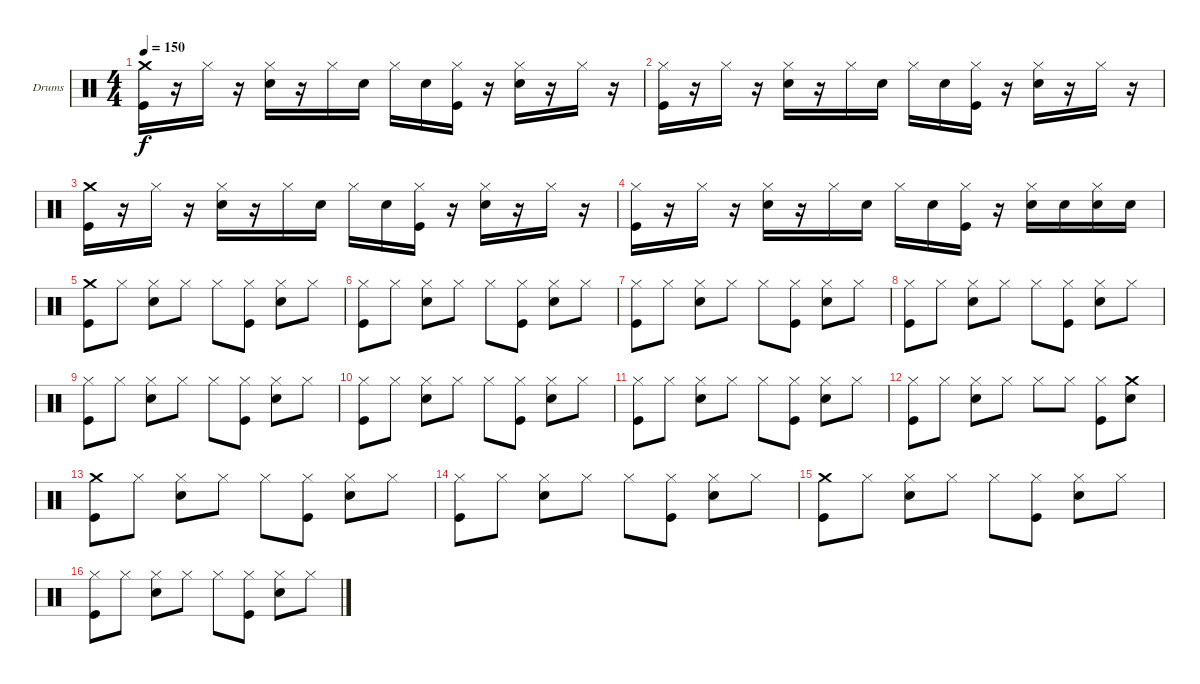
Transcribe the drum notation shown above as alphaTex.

\defaultSystemsLayout 4
\bracketExtendMode groupsimilarinstruments
\firstSystemTrackNameOrientation horizontal
\otherSystemsTrackNameOrientation horizontal
\track ("Drumkit" "Drums") {instrument percussion}
\staff {score}
\articulation defaults
\ts (4 4)
\tempo 150
\clef neutral
\ks c
("Kick (hit)" "Crash medium (hit)").16{dy f} r.16 "Hi-Hat (closed)".16 r.16 ("Snare (hit) 2" "Hi-Hat (closed)").16 r.16 "Hi-Hat (closed)".16 "Snare (hit) 2".16 "Hi-Hat (closed)".16 "Snare (hit) 2".16 ("Kick (hit)" "Hi-Hat (closed)").16 r.16 ("Snare (hit) 2" "Hi-Hat (closed)").16 r.16 "Hi-Hat (closed)".16 r.16 |
("Kick (hit)" "Hi-Hat (closed)").16 r.16 "Hi-Hat (closed)".16 r.16 ("Snare (hit) 2" "Hi-Hat (closed)").16 r.16 "Hi-Hat (closed)".16 "Snare (hit) 2".16 "Hi-Hat (closed)".16 "Snare (hit) 2".16 ("Kick (hit)" "Hi-Hat (closed)").16 r.16 ("Snare (hit) 2" "Hi-Hat (closed)").16 r.16 "Hi-Hat (closed)".16 r.16 |
("Kick (hit)" "Crash medium (hit)").16 r.16 "Hi-Hat (closed)".16 r.16 ("Snare (hit) 2" "Hi-Hat (closed)").16 r.16 "Hi-Hat (closed)".16 "Snare (hit) 2".16 "Hi-Hat (closed)".16 "Snare (hit) 2".16 ("Kick (hit)" "Hi-Hat (closed)").16 r.16 ("Snare (hit) 2" "Hi-Hat (closed)").16 r.16 "Hi-Hat (closed)".16 r.16 |
("Kick (hit)" "Hi-Hat (closed)").16 r.16 "Hi-Hat (closed)".16 r.16 ("Snare (hit) 2" "Hi-Hat (closed)").16 r.16 "Hi-Hat (closed)".16 "Snare (hit) 2".16 "Hi-Hat (closed)".16 "Snare (hit) 2".16 ("Kick (hit)" "Hi-Hat (closed)").16 r.16 ("Snare (hit) 2" "Hi-Hat (closed)").16 "Snare (hit) 2".16 ("Snare (hit) 2" "Hi-Hat (closed)").16 "Snare (hit) 2".16 |
("Kick (hit)" "Crash medium (hit)").8 "Hi-Hat (closed)".8 ("Snare (hit) 2" "Hi-Hat (closed)").8 "Hi-Hat (closed)".8 "Hi-Hat (closed)".8 ("Kick (hit)" "Hi-Hat (closed)").8 ("Snare (hit) 2" "Hi-Hat (closed)").8 "Hi-Hat (closed)".8 |
("Kick (hit)" "Hi-Hat (closed)").8 "Hi-Hat (closed)".8 ("Snare (hit) 2" "Hi-Hat (closed)").8 "Hi-Hat (closed)".8 "Hi-Hat (closed)".8 ("Kick (hit)" "Hi-Hat (closed)").8 ("Snare (hit) 2" "Hi-Hat (closed)").8 "Hi-Hat (closed)".8 |
("Kick (hit)" "Hi-Hat (closed)").8 "Hi-Hat (closed)".8 ("Snare (hit) 2" "Hi-Hat (closed)").8 "Hi-Hat (closed)".8 "Hi-Hat (closed)".8 ("Kick (hit)" "Hi-Hat (closed)").8 ("Snare (hit) 2" "Hi-Hat (closed)").8 "Hi-Hat (closed)".8 |
("Kick (hit)" "Hi-Hat (closed)").8 "Hi-Hat (closed)".8 ("Snare (hit) 2" "Hi-Hat (closed)").8 "Hi-Hat (closed)".8 "Hi-Hat (closed)".8 ("Kick (hit)" "Hi-Hat (closed)").8 ("Snare (hit) 2" "Hi-Hat (closed)").8 "Hi-Hat (closed)".8 |
("Kick (hit)" "Hi-Hat (closed)").8 "Hi-Hat (closed)".8 ("Snare (hit) 2" "Hi-Hat (closed)").8 "Hi-Hat (closed)".8 "Hi-Hat (closed)".8 ("Kick (hit)" "Hi-Hat (closed)").8 ("Snare (hit) 2" "Hi-Hat (closed)").8 "Hi-Hat (closed)".8 |
("Kick (hit)" "Hi-Hat (closed)").8 "Hi-Hat (closed)".8 ("Snare (hit) 2" "Hi-Hat (closed)").8 "Hi-Hat (closed)".8 "Hi-Hat (closed)".8 ("Kick (hit)" "Hi-Hat (closed)").8 ("Snare (hit) 2" "Hi-Hat (closed)").8 "Hi-Hat (closed)".8 |
("Kick (hit)" "Hi-Hat (closed)").8 "Hi-Hat (closed)".8 ("Snare (hit) 2" "Hi-Hat (closed)").8 "Hi-Hat (closed)".8 "Hi-Hat (closed)".8 ("Kick (hit)" "Hi-Hat (closed)").8 ("Snare (hit) 2" "Hi-Hat (closed)").8 "Hi-Hat (closed)".8 |
("Kick (hit)" "Hi-Hat (closed)").8 "Hi-Hat (closed)".8 ("Snare (hit) 2" "Hi-Hat (closed)").8 "Hi-Hat (closed)".8 "Hi-Hat (closed)".8 "Hi-Hat (closed)".8 ("Kick (hit)" "Hi-Hat (closed)").8 ("Snare (hit) 2" "Crash medium (hit)").8 |
("Kick (hit)" "Crash medium (hit)").8 "Hi-Hat (closed)".8 ("Snare (hit) 2" "Hi-Hat (closed)").8 "Hi-Hat (closed)".8 "Hi-Hat (closed)".8 ("Kick (hit)" "Hi-Hat (closed)").8 ("Snare (hit) 2" "Hi-Hat (closed)").8 "Hi-Hat (closed)".8 |
("Kick (hit)" "Hi-Hat (closed)").8 "Hi-Hat (closed)".8 ("Snare (hit) 2" "Hi-Hat (closed)").8 "Hi-Hat (closed)".8 "Hi-Hat (closed)".8 ("Kick (hit)" "Hi-Hat (closed)").8 ("Snare (hit) 2" "Hi-Hat (closed)").8 "Hi-Hat (closed)".8 |
("Kick (hit)" "Crash medium (hit)").8 "Hi-Hat (closed)".8 ("Snare (hit) 2" "Hi-Hat (closed)").8 "Hi-Hat (closed)".8 "Hi-Hat (closed)".8 ("Kick (hit)" "Hi-Hat (closed)").8 ("Snare (hit) 2" "Hi-Hat (closed)").8 "Hi-Hat (closed)".8 |
("Kick (hit)" "Hi-Hat (closed)").8 "Hi-Hat (closed)".8 ("Snare (hit) 2" "Hi-Hat (closed)").8 "Hi-Hat (closed)".8 "Hi-Hat (closed)".8 ("Kick (hit)" "Hi-Hat (closed)").8 ("Snare (hit) 2" "Hi-Hat (closed)").8 "Hi-Hat (closed)".8
